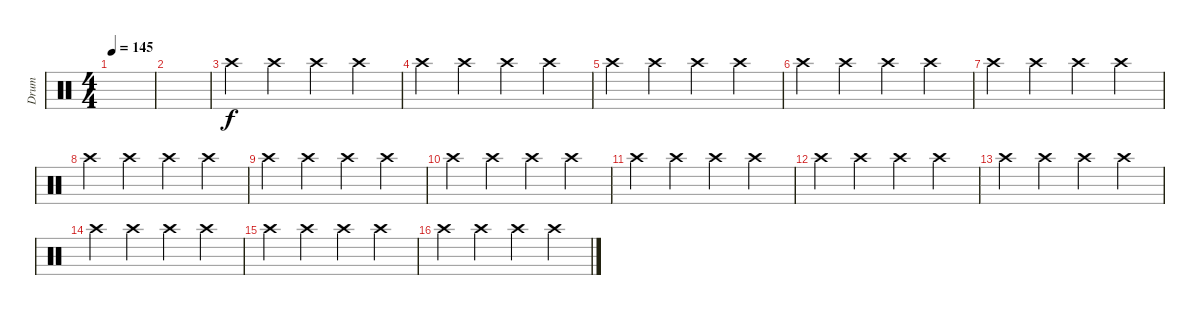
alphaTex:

\track ("Drum" "Drum") {instrument percussion bank 4}
\staff {score}
\articulation defaults
\ts (4 4)
\tempo 145
\clef neutral
\ks c
|
|
"Crash high (hit)".4{dy f} "Crash high (hit)".4 "Crash high (hit)".4 "Crash high (hit)".4 |
"Crash high (hit)".4 "Crash high (hit)".4 "Crash high (hit)".4 "Crash high (hit)".4 |
"Crash high (hit)".4 "Crash high (hit)".4 "Crash high (hit)".4 "Crash high (hit)".4 |
"Crash high (hit)".4 "Crash high (hit)".4 "Crash high (hit)".4 "Crash high (hit)".4 |
"Crash high (hit)".4 "Crash high (hit)".4 "Crash high (hit)".4 "Crash high (hit)".4 |
"Crash high (hit)".4 "Crash high (hit)".4 "Crash high (hit)".4 "Crash high (hit)".4 |
"Crash high (hit)".4 "Crash high (hit)".4 "Crash high (hit)".4 "Crash high (hit)".4 |
"Crash high (hit)".4 "Crash high (hit)".4 "Crash high (hit)".4 "Crash high (hit)".4 |
"Crash high (hit)".4 "Crash high (hit)".4 "Crash high (hit)".4 "Crash high (hit)".4 |
"Crash high (hit)".4 "Crash high (hit)".4 "Crash high (hit)".4 "Crash high (hit)".4 |
"Crash high (hit)".4 "Crash high (hit)".4 "Crash high (hit)".4 "Crash high (hit)".4 |
"Crash high (hit)".4 "Crash high (hit)".4 "Crash high (hit)".4 "Crash high (hit)".4 |
"Crash high (hit)".4 "Crash high (hit)".4 "Crash high (hit)".4 "Crash high (hit)".4 |
"Crash high (hit)".4 "Crash high (hit)".4 "Crash high (hit)".4 "Crash high (hit)".4
